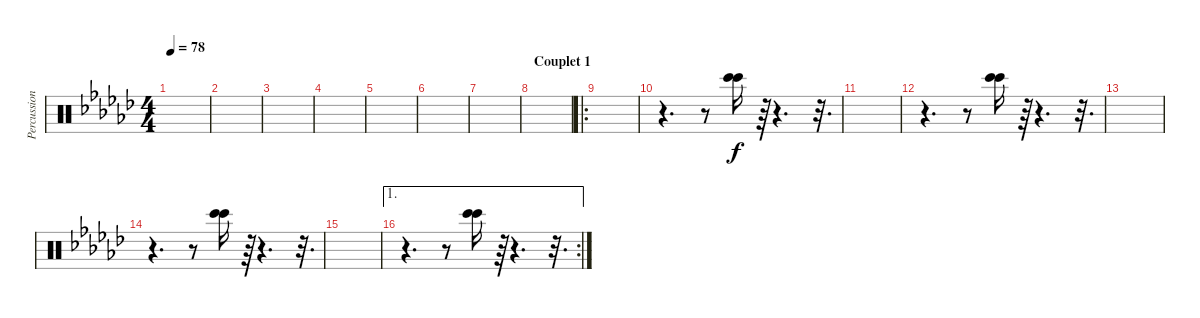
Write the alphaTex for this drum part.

\track ("Percussions" "Percussion") {instrument percussion}
\staff {score}
\articulation defaults
\ts (4 4)
\tempo 78
\clef neutral
\ks gb
|
|
|
|
|
|
|
\section ("" "Couplet 1")
|
\ro
|
r.4{d} r.8 ("Bongo High (hit)" "Bongo High (hit)").16{bd 480} r.64 r.4{d} r.32{d} |
|
r.4{d} r.8 ("Bongo High (hit)" "Bongo High (hit)").16{bd 480} r.64 r.4{d} r.32{d} |
|
r.4{d} r.8 ("Bongo High (hit)" "Bongo High (hit)").16{bd 480} r.64 r.4{d} r.32{d} |
|
\ae 1
\rc 2
r.4{d} r.8 ("Bongo High (hit)" "Bongo High (hit)").16{bd 480} r.64 r.4{d} r.32{d}
